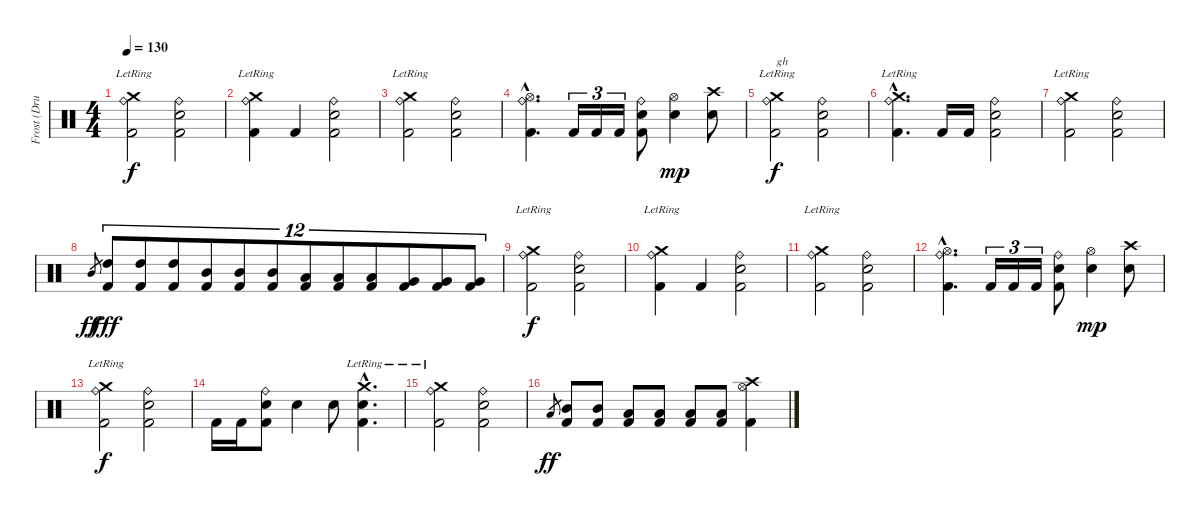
\track ("Frost (Drums)" "Frost (Dru") {instrument percussion}
\staff {score}
\articulation defaults
\ts (4 4)
\tempo 130
\clef neutral
\ks c
("Ride (bell)" "Crash medium (hit)"{lr} "Kick (hit) 2").2{dy f} ("Ride (bell)" "Snare (hit) 2" "Kick (hit) 2").2 |
("Ride (bell)" "Crash medium (hit)"{lr} "Kick (hit) 2").4 "Kick (hit) 2".4 ("Ride (bell)" "Snare (hit) 2" "Kick (hit) 2").2 |
("Ride (bell)" "Crash medium (hit)"{lr} "Kick (hit) 2").2 ("Ride (bell)" "Snare (hit) 2" "Kick (hit) 2").2 |
("Ride (bell)"{hac} "Hi-Hat (open)"{hac} "Kick (hit) 2"{hac}).4{d} "Kick (hit) 2".16{tu (3 2)} "Kick (hit) 2".16{tu (3 2)} "Kick (hit) 2".16{tu (3 2)} ("Ride (bell)" "Snare (hit) 2" "Kick (hit) 2").8 ("Hi-Hat (open)" "Snare (hit) 2").4{dy mp} ("Crash high (hit)" "Snare (hit) 2").8 |
("Ride (bell)" "Crash medium (hit)"{lr} "Kick (hit) 2").2{txt "gh" dy f} ("Ride (bell)" "Snare (hit) 2" "Kick (hit) 2").2 |
("Ride (bell)"{hac} "Crash medium (hit)"{hac lr} "Kick (hit) 2"{hac}).4{d} "Kick (hit) 2".16 "Kick (hit) 2".16 ("Ride (bell)" "Snare (hit) 2" "Kick (hit) 2").2 |
("Ride (bell)" "Crash medium (hit)"{lr} "Kick (hit) 2").2 ("Ride (bell)" "Snare (hit) 2" "Kick (hit) 2").2 |
"Mid Tom (hit)".8{gr dy ff} ("High Tom (hit)" "Kick (hit) 2").8{tu (12 8) dy fff} ("High Tom (hit)" "Kick (hit) 2").8{tu (12 8)} ("High Tom (hit)" "Kick (hit) 2").8{tu (12 8)} ("Mid Tom (hit)" "Kick (hit) 2").8{tu (12 8)} ("Mid Tom (hit)" "Kick (hit) 2").8{tu (12 8)} ("Mid Tom (hit)" "Kick (hit) 2").8{tu (12 8)} ("Low Tom (hit)" "Kick (hit) 2").8{tu (12 8)} ("Low Tom (hit)" "Kick (hit) 2").8{tu (12 8)} ("Low Tom (hit)" "Kick (hit) 2").8{tu (12 8)} ("Very Low Tom (hit)" "Kick (hit) 2").8{tu (12 8)} ("Very Low Tom (hit)" "Kick (hit) 2").8{tu (12 8)} ("Very Low Tom (hit)" "Kick (hit) 2").8{tu (12 8)} |
("Ride (bell)" "Crash medium (hit)"{lr} "Kick (hit) 2").2{dy f} ("Ride (bell)" "Snare (hit) 2" "Kick (hit) 2").2 |
("Ride (bell)" "Crash medium (hit)"{lr} "Kick (hit) 2").4 "Kick (hit) 2".4 ("Ride (bell)" "Snare (hit) 2" "Kick (hit) 2").2 |
("Ride (bell)" "Crash medium (hit)"{lr} "Kick (hit) 2").2 ("Ride (bell)" "Snare (hit) 2" "Kick (hit) 2").2 |
("Ride (bell)"{hac} "Hi-Hat (open)"{hac} "Kick (hit) 2"{hac}).4{d} "Kick (hit) 2".16{tu (3 2)} "Kick (hit) 2".16{tu (3 2)} "Kick (hit) 2".16{tu (3 2)} ("Ride (bell)" "Snare (hit) 2" "Kick (hit) 2").8 ("Hi-Hat (open)" "Snare (hit) 2").4{dy mp} ("Crash high (hit)" "Snare (hit) 2").8 |
("Ride (bell)" "Crash medium (hit)"{lr} "Kick (hit) 2").2{dy f} ("Ride (bell)" "Snare (hit) 2" "Kick (hit) 2").2 |
"Kick (hit) 2".16 "Kick (hit) 2".16 ("Ride (bell)" "Snare (hit) 2" "Kick (hit) 2").8 "Snare (hit) 2".4 "Snare (hit) 2".8 ("Snare (hit) 2"{hac} "Crash medium (hit)"{hac lr} "Kick (hit) 2"{hac}).4{d} |
("Ride (bell)" "Crash medium (hit)"{lr} "Kick (hit) 2").2 ("Ride (bell)" "Snare (hit) 2" "Kick (hit) 2").2 |
"Low Tom (hit)"{h}.8{gr dy ff} ("Mid Tom (hit)" "Kick (hit) 2").8 ("Mid Tom (hit)" "Kick (hit) 2").8 ("Low Tom (hit)" "Kick (hit) 2").8 ("Low Tom (hit)" "Kick (hit) 2").8 ("Low Floor Tom (hit)" "Kick (hit) 2").8 ("Low Floor Tom (hit)" "Kick (hit) 2").8 ("Hi-Hat (open)" "Crash high (hit)" "Kick (hit) 2").4
